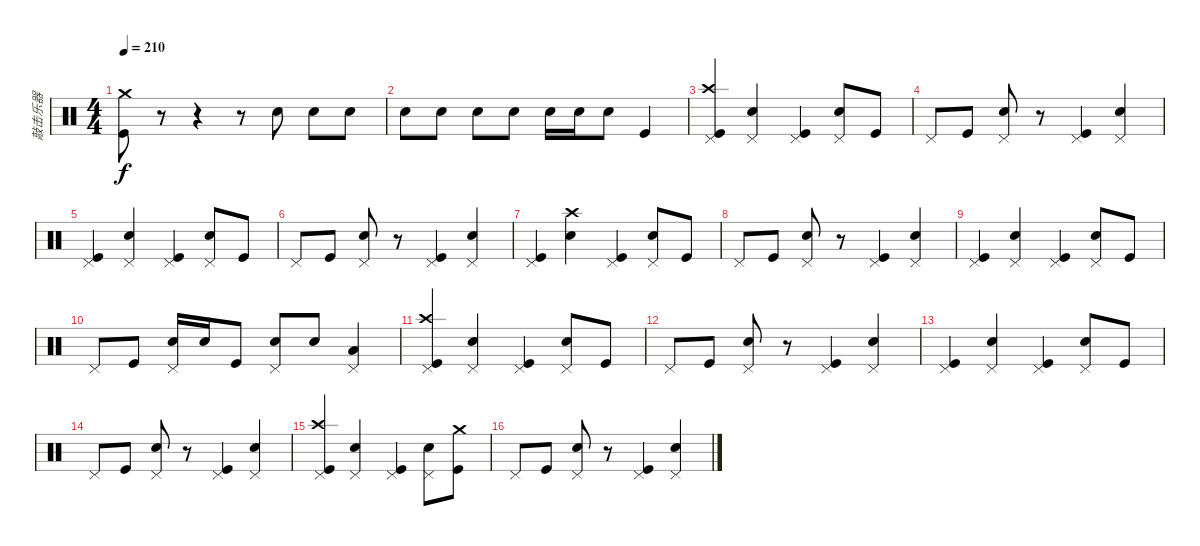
\track ("敲击乐器" "敲击乐器") {instrument percussion}
\staff {score}
\articulation defaults
\ts (4 4)
\tempo 210
\clef neutral
\ks c
("Crash medium (hit)" "Kick (hit)").8{dy f} r.8 r.4 r.8 "Snare (hit) 2".8 "Snare (hit) 2".8 "Snare (hit) 2".8 |
"Snare (hit) 2".8 "Snare (hit) 2".8 "Snare (hit) 2".8 "Snare (hit) 2".8 "Snare (hit) 2".16 "Snare (hit) 2".16 "Snare (hit) 2".8 "Kick (hit)".4 |
("Crash high (hit)" "Pedal Hi-Hat (hit)" "Kick (hit)").4 ("Pedal Hi-Hat (hit)" "Snare (hit) 2").4 ("Pedal Hi-Hat (hit)" "Kick (hit)").4 ("Pedal Hi-Hat (hit)" "Snare (hit) 2").8 "Kick (hit)".8 |
"Pedal Hi-Hat (hit)".8 "Kick (hit)".8 ("Pedal Hi-Hat (hit)" "Snare (hit) 2").8 r.8 ("Kick (hit)" "Pedal Hi-Hat (hit)").4 ("Snare (hit) 2" "Pedal Hi-Hat (hit)").4 |
("Pedal Hi-Hat (hit)" "Kick (hit)").4 ("Pedal Hi-Hat (hit)" "Snare (hit) 2").4 ("Pedal Hi-Hat (hit)" "Kick (hit)").4 ("Pedal Hi-Hat (hit)" "Snare (hit) 2").8 "Kick (hit)".8 |
"Pedal Hi-Hat (hit)".8 "Kick (hit)".8 ("Pedal Hi-Hat (hit)" "Snare (hit) 2").8 r.8 ("Kick (hit)" "Pedal Hi-Hat (hit)").4 ("Snare (hit) 2" "Pedal Hi-Hat (hit)").4 |
("Pedal Hi-Hat (hit)" "Kick (hit)").4 ("Crash high (hit)" "Snare (hit) 2").4 ("Pedal Hi-Hat (hit)" "Kick (hit)").4 ("Pedal Hi-Hat (hit)" "Snare (hit) 2").8 "Kick (hit)".8 |
"Pedal Hi-Hat (hit)".8 "Kick (hit)".8 ("Pedal Hi-Hat (hit)" "Snare (hit) 2").8 r.8 ("Kick (hit)" "Pedal Hi-Hat (hit)").4 ("Snare (hit) 2" "Pedal Hi-Hat (hit)").4 |
("Pedal Hi-Hat (hit)" "Kick (hit)").4 ("Pedal Hi-Hat (hit)" "Snare (hit) 2").4 ("Pedal Hi-Hat (hit)" "Kick (hit)").4 ("Pedal Hi-Hat (hit)" "Snare (hit) 2").8 "Kick (hit)".8 |
"Pedal Hi-Hat (hit)".8 "Kick (hit)".8 ("Pedal Hi-Hat (hit)" "Snare (hit) 2").16 "Snare (hit) 2".16 "Kick (hit)".8 ("Pedal Hi-Hat (hit)" "Snare (hit) 2").8 "Snare (hit) 2".8 ("Pedal Hi-Hat (hit)" "Low Floor Tom (hit)").4 |
("Crash high (hit)" "Pedal Hi-Hat (hit)" "Kick (hit)").4 ("Pedal Hi-Hat (hit)" "Snare (hit) 2").4 ("Pedal Hi-Hat (hit)" "Kick (hit)").4 ("Pedal Hi-Hat (hit)" "Snare (hit) 2").8 "Kick (hit)".8 |
"Pedal Hi-Hat (hit)".8 "Kick (hit)".8 ("Pedal Hi-Hat (hit)" "Snare (hit) 2").8 r.8 ("Kick (hit)" "Pedal Hi-Hat (hit)").4 ("Snare (hit) 2" "Pedal Hi-Hat (hit)").4 |
("Pedal Hi-Hat (hit)" "Kick (hit)").4 ("Pedal Hi-Hat (hit)" "Snare (hit) 2").4 ("Pedal Hi-Hat (hit)" "Kick (hit)").4 ("Pedal Hi-Hat (hit)" "Snare (hit) 2").8 "Kick (hit)".8 |
"Pedal Hi-Hat (hit)".8 "Kick (hit)".8 ("Pedal Hi-Hat (hit)" "Snare (hit) 2").8 r.8 ("Kick (hit)" "Pedal Hi-Hat (hit)").4 ("Snare (hit) 2" "Pedal Hi-Hat (hit)").4 |
("Crash high (hit)" "Pedal Hi-Hat (hit)" "Kick (hit)").4 ("Pedal Hi-Hat (hit)" "Snare (hit) 2").4 ("Pedal Hi-Hat (hit)" "Kick (hit)").4 ("Pedal Hi-Hat (hit)" "Snare (hit) 2").8 ("Crash medium (hit)" "Kick (hit)").8 |
"Pedal Hi-Hat (hit)".8 "Kick (hit)".8 ("Pedal Hi-Hat (hit)" "Snare (hit) 2").8 r.8 ("Kick (hit)" "Pedal Hi-Hat (hit)").4 ("Snare (hit) 2" "Pedal Hi-Hat (hit)").4
